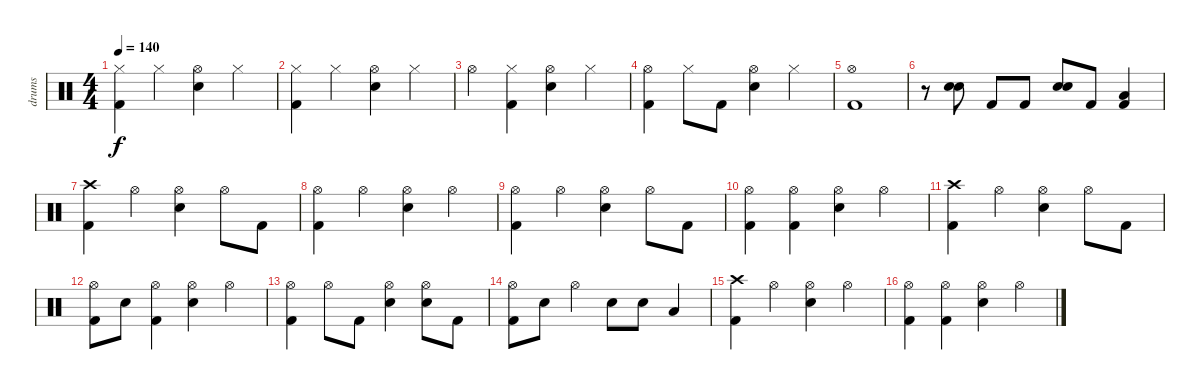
\track ("drums" "drums") {instrument percussion}
\staff {score}
\articulation defaults
\ts (4 4)
\tempo 140
\clef neutral
\ks c
("Hi-Hat (closed)" "Kick (hit) 2").4{dy f} "Hi-Hat (closed)".4 ("Snare (hit) 2" "Hi-Hat (open)").4 "Hi-Hat (closed)".4 |
("Hi-Hat (closed)" "Kick (hit) 2").4 "Hi-Hat (closed)".4 ("Snare (hit) 2" "Hi-Hat (open)").4 "Hi-Hat (closed)".4 |
"Hi-Hat (open)".4 ("Kick (hit) 2" "Hi-Hat (closed)").4 ("Snare (hit) 2" "Hi-Hat (open)").4 "Hi-Hat (closed)".4 |
("Hi-Hat (open)" "Kick (hit) 2").4 "Hi-Hat (closed)".8 "Kick (hit) 2".8 ("Snare (hit) 2" "Hi-Hat (open)").4 "Hi-Hat (closed)".4 |
("Hi-Hat (open)" "Kick (hit) 2").1 |
r.8{volume 15} ("Snare (hit) 2" "Snare (hit) 2").8 "Kick (hit) 2".8 "Kick (hit) 2".8 ("Snare (hit) 2" "Snare (hit) 2").8 "Kick (hit) 2".8 ("Low Floor Tom (hit)" "Kick (hit) 2").4 |
("Crash high (hit)" "Kick (hit) 2").4 "Hi-Hat (open)".4 ("Snare (hit) 2" "Hi-Hat (open)").4 "Hi-Hat (open)".8 "Kick (hit) 2".8 |
("Kick (hit) 2" "Hi-Hat (open)").4 "Hi-Hat (open)".4 ("Snare (hit) 2" "Hi-Hat (open)").4 "Hi-Hat (open)".4 |
("Hi-Hat (open)" "Kick (hit) 2").4 "Hi-Hat (open)".4 ("Snare (hit) 2" "Hi-Hat (open)").4 "Hi-Hat (open)".8 "Kick (hit) 2".8 |
("Kick (hit) 2" "Hi-Hat (open)").4 ("Kick (hit) 2" "Hi-Hat (open)").4 ("Snare (hit) 2" "Hi-Hat (open)").4 "Hi-Hat (open)".4 |
("Crash high (hit)" "Kick (hit) 2").4 "Hi-Hat (open)".4 ("Snare (hit) 2" "Hi-Hat (open)").4 "Hi-Hat (open)".8 "Kick (hit) 2".8 |
("Kick (hit) 2" "Hi-Hat (open)").8 "Snare (hit) 2".8 ("Kick (hit) 2" "Hi-Hat (open)").4 ("Snare (hit) 2" "Hi-Hat (open)").4 "Hi-Hat (open)".4 |
("Kick (hit) 2" "Hi-Hat (open)").4 "Hi-Hat (open)".8 "Kick (hit) 2".8 ("Snare (hit) 2" "Hi-Hat (open)").4 ("Snare (hit) 2" "Hi-Hat (open)").8 "Kick (hit) 2".8 |
("Kick (hit) 2" "Hi-Hat (open)").8 "Snare (hit) 2".8 "Hi-Hat (open)".4 "Snare (hit) 2".8 "Snare (hit) 2".8 "Low Tom (hit)".4 |
("Crash high (hit)" "Kick (hit) 2").4 "Hi-Hat (open)".4 ("Snare (hit) 2" "Hi-Hat (open)").4 "Hi-Hat (open)".4 |
("Kick (hit) 2" "Hi-Hat (open)").4 ("Kick (hit) 2" "Hi-Hat (open)").4 ("Snare (hit) 2" "Hi-Hat (open)").4 "Hi-Hat (open)".4
